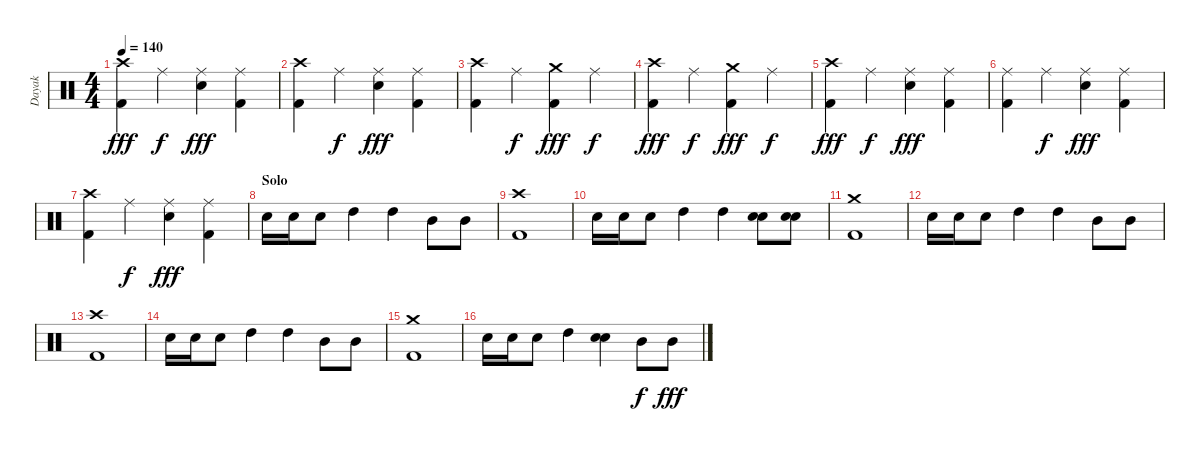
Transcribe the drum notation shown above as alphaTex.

\track ("Dayak" "Dayak") {instrument percussion}
\staff {score}
\articulation defaults
\ts (4 4)
\tempo 140
\clef neutral
\ks c
("Crash high (hit)" "Kick (hit) 2").4{dy fff} "Ride (middle)".4{dy f} ("Ride (middle)" "Snare (hit) 2").4{dy fff} ("Ride (middle)" "Kick (hit) 2").4 |
("Crash high (hit)" "Kick (hit) 2").4 "Ride (middle)".4{dy f} ("Ride (middle)" "Snare (hit) 2").4{dy fff} ("Ride (middle)" "Kick (hit) 2").4 |
("Crash high (hit)" "Kick (hit) 2").4 "Ride (middle)".4{dy f} ("Crash medium (hit)" "Kick (hit) 2").4{dy fff} "Ride (middle)".4{dy f} |
("Crash high (hit)" "Kick (hit) 2").4{dy fff} "Ride (middle)".4{dy f} ("Crash medium (hit)" "Kick (hit) 2").4{dy fff} "Ride (middle)".4{dy f} |
("Crash high (hit)" "Kick (hit) 2").4{dy fff} "Ride (middle)".4{dy f} ("Ride (middle)" "Snare (hit) 2").4{dy fff} ("Ride (middle)" "Kick (hit) 2").4 |
("Ride (middle)" "Kick (hit) 2").4 "Ride (middle)".4{dy f} ("Ride (middle)" "Snare (hit) 2").4{dy fff} ("Ride (middle)" "Kick (hit) 2").4 |
("Crash high (hit)" "Kick (hit) 2").4 "Ride (middle)".4{dy f} ("Ride (middle)" "Snare (hit) 2").4{dy fff} ("Ride (middle)" "Kick (hit) 2").4 |
\section ("" "Solo")
"Snare (hit) 2".16 "Snare (hit) 2".16 "Snare (hit) 2".8 "High Tom (hit)".4 "High Tom (hit)".4 "Mid Tom (hit)".8 "Mid Tom (hit)".8 |
("Crash high (hit)" "Kick (hit) 2").1 |
"Snare (hit) 2".16 "Snare (hit) 2".16 "Snare (hit) 2".8 "High Tom (hit)".4 "High Tom (hit)".4 ("Snare (hit) 2" "Snare (hit) 2").8 ("Snare (hit) 2" "Snare (hit) 2").8 |
("Crash medium (hit)" "Kick (hit) 2").1 |
"Snare (hit) 2".16 "Snare (hit) 2".16 "Snare (hit) 2".8 "High Tom (hit)".4 "High Tom (hit)".4 "Mid Tom (hit)".8 "Mid Tom (hit)".8 |
("Crash high (hit)" "Kick (hit) 2").1 |
"Snare (hit) 2".16 "Snare (hit) 2".16 "Snare (hit) 2".8 "High Tom (hit)".4 "High Tom (hit)".4 "Mid Tom (hit)".8 "Mid Tom (hit)".8 |
("Crash medium (hit)" "Kick (hit) 2").1 |
"Snare (hit) 2".16 "Snare (hit) 2".16 "Snare (hit) 2".8 "High Tom (hit)".4 ("Snare (hit) 2" "Snare (hit) 2").4 "Mid Tom (hit)".8{dy f} "Mid Tom (hit)".8{dy fff}
